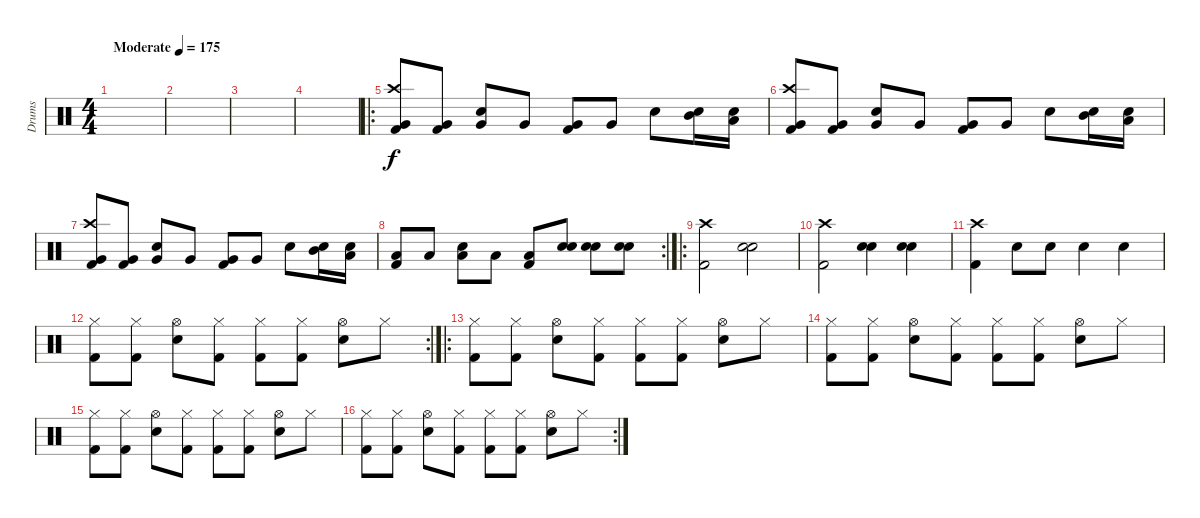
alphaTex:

\track ("Drums" "Drums") {instrument percussion}
\staff {score}
\articulation defaults
\ts (4 4)
\tempo (175 "Moderate")
\clef neutral
\ks c
|
|
|
|
\ro
("Very Low Tom (hit)" "Crash high (hit)" "Kick (hit) 2").8 ("Very Low Tom (hit)" "Kick (hit) 2").8 ("Very Low Tom (hit)" "Snare (hit) 2").8 "Very Low Tom (hit)".8 ("Very Low Tom (hit)" "Kick (hit) 2").8 "Very Low Tom (hit)".8 "Snare (hit) 2".8 ("Mid Tom (hit)" "Snare (hit) 2").16 ("Low Tom (hit)" "Snare (hit) 2").16 |
("Very Low Tom (hit)" "Crash high (hit)" "Kick (hit) 2").8 ("Very Low Tom (hit)" "Kick (hit) 2").8 ("Very Low Tom (hit)" "Snare (hit) 2").8 "Very Low Tom (hit)".8 ("Very Low Tom (hit)" "Kick (hit) 2").8 "Very Low Tom (hit)".8 "Snare (hit) 2".8 ("Mid Tom (hit)" "Snare (hit) 2").16 ("Low Tom (hit)" "Snare (hit) 2").16 |
("Very Low Tom (hit)" "Crash high (hit)" "Kick (hit) 2").8 ("Very Low Tom (hit)" "Kick (hit) 2").8 ("Very Low Tom (hit)" "Snare (hit) 2").8 "Very Low Tom (hit)".8 ("Very Low Tom (hit)" "Kick (hit) 2").8 "Very Low Tom (hit)".8 "Snare (hit) 2".8 ("Mid Tom (hit)" "Snare (hit) 2").16 ("Low Tom (hit)" "Snare (hit) 2").16 |
\rc 2
("Low Floor Tom (hit)" "Kick (hit) 2").8 "Low Floor Tom (hit)".8 ("Low Floor Tom (hit)" "Snare (hit) 2").8 "Low Floor Tom (hit)".8 ("Low Floor Tom (hit)" "Kick (hit) 2").8 ("Snare (hit) 2" "Snare (hit) 2").8 ("Snare (hit) 2" "Snare (hit) 2").8 ("Snare (hit) 2" "Snare (hit) 2").8 |
\ro
("Crash high (hit)" "Kick (hit) 2").2 ("Electric Snare (hit)" "Snare (hit) 2").2 |
("Crash high (hit)" "Kick (hit) 2").2 ("Electric Snare (hit)" "Snare (hit) 2").4 ("Electric Snare (hit)" "Snare (hit) 2").4 |
("Crash high (hit)" "Kick (hit) 2").4 "Snare (hit) 2".8 "Snare (hit) 2".8 "Snare (hit) 2".4 "Snare (hit) 2".4 |
\rc 2
("Hi-Hat (closed)" "Kick (hit) 2").8 ("Hi-Hat (closed)" "Kick (hit) 2").8 ("Hi-Hat (open)" "Snare (hit) 2").8 ("Hi-Hat (closed)" "Kick (hit) 2").8 ("Hi-Hat (closed)" "Kick (hit) 2").8 ("Hi-Hat (closed)" "Kick (hit) 2").8 ("Hi-Hat (open)" "Snare (hit) 2").8 "Hi-Hat (closed)".8 |
\ro
("Hi-Hat (closed)" "Kick (hit) 2").8 ("Hi-Hat (closed)" "Kick (hit) 2").8 ("Hi-Hat (open)" "Snare (hit) 2").8 ("Hi-Hat (closed)" "Kick (hit) 2").8 ("Hi-Hat (closed)" "Kick (hit) 2").8 ("Hi-Hat (closed)" "Kick (hit) 2").8 ("Hi-Hat (open)" "Snare (hit) 2").8 "Hi-Hat (closed)".8 |
("Hi-Hat (closed)" "Kick (hit) 2").8 ("Hi-Hat (closed)" "Kick (hit) 2").8 ("Hi-Hat (open)" "Snare (hit) 2").8 ("Hi-Hat (closed)" "Kick (hit) 2").8 ("Hi-Hat (closed)" "Kick (hit) 2").8 ("Hi-Hat (closed)" "Kick (hit) 2").8 ("Hi-Hat (open)" "Snare (hit) 2").8 "Hi-Hat (closed)".8 |
("Hi-Hat (closed)" "Kick (hit) 2").8 ("Hi-Hat (closed)" "Kick (hit) 2").8 ("Hi-Hat (open)" "Snare (hit) 2").8 ("Hi-Hat (closed)" "Kick (hit) 2").8 ("Hi-Hat (closed)" "Kick (hit) 2").8 ("Hi-Hat (closed)" "Kick (hit) 2").8 ("Hi-Hat (open)" "Snare (hit) 2").8 "Hi-Hat (closed)".8 |
\rc 2
("Hi-Hat (closed)" "Kick (hit) 2").8 ("Hi-Hat (closed)" "Kick (hit) 2").8 ("Hi-Hat (open)" "Snare (hit) 2").8 ("Hi-Hat (closed)" "Kick (hit) 2").8 ("Hi-Hat (closed)" "Kick (hit) 2").8 ("Hi-Hat (closed)" "Kick (hit) 2").8 ("Hi-Hat (open)" "Snare (hit) 2").8 "Hi-Hat (closed)".8
